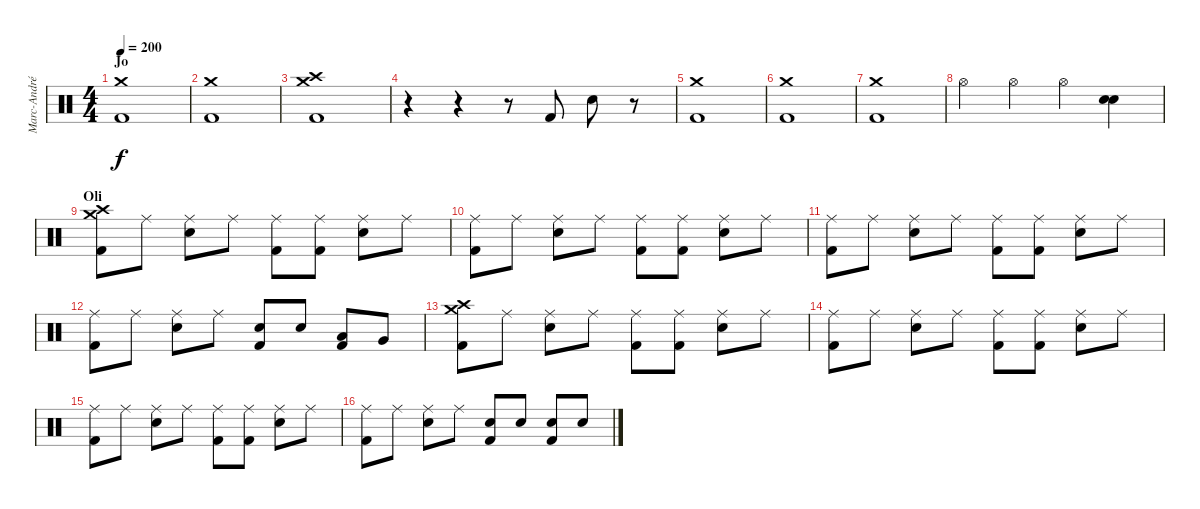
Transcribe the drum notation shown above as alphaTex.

\track ("Marc-André Barabé" "Marc-André") {instrument percussion}
\staff {score}
\articulation defaults
\ts (4 4)
\section ("" "Jo")
\tempo 200
\clef neutral
\ks c
("Crash medium (hit)" "Kick (hit) 2").1{dy f} |
("Crash medium (hit)" "Kick (hit) 2").1 |
("Crash high (hit)" "Crash medium (hit)" "Kick (hit) 2").1 |
r.4 r.4 r.8 "Kick (hit) 2".8 "Electric Snare (hit)".8 r.8 |
("Crash medium (hit)" "Kick (hit) 2").1 |
("Crash medium (hit)" "Kick (hit) 2").1 |
("Crash medium (hit)" "Kick (hit) 2").1 |
"Hi-Hat (open)".4 "Hi-Hat (open)".4 "Hi-Hat (open)".4 ("Electric Snare (hit)" "Electric Snare (hit)").4 |
\section ("" "Oli")
("Crash high (hit)" "Crash medium (hit)" "Kick (hit) 2").8 "Ride (middle)".8 ("Ride (middle)" "Electric Snare (hit)").8 "Ride (middle)".8 ("Ride (middle)" "Kick (hit) 2").8 ("Ride (middle)" "Kick (hit) 2").8 ("Ride (middle)" "Electric Snare (hit)").8 "Ride (middle)".8 |
("Ride (middle)" "Kick (hit) 2").8 "Ride (middle)".8 ("Ride (middle)" "Electric Snare (hit)").8 "Ride (middle)".8 ("Ride (middle)" "Kick (hit) 2").8 ("Ride (middle)" "Kick (hit) 2").8 ("Ride (middle)" "Electric Snare (hit)").8 "Ride (middle)".8 |
("Ride (middle)" "Kick (hit) 2").8 "Ride (middle)".8 ("Ride (middle)" "Electric Snare (hit)").8 "Ride (middle)".8 ("Ride (middle)" "Kick (hit) 2").8 ("Ride (middle)" "Kick (hit) 2").8 ("Ride (middle)" "Electric Snare (hit)").8 "Ride (middle)".8 |
("Ride (middle)" "Kick (hit) 2").8 "Ride (middle)".8 ("Ride (middle)" "Electric Snare (hit)").8 "Ride (middle)".8 ("Electric Snare (hit)"{tr (4 32)} "Kick (hit) 2").8 "Electric Snare (hit)"{tr (4 32)}.8 ("Low Tom (hit)"{tr (4 32)} "Kick (hit) 2").8 "Very Low Tom (hit)"{tr (4 32)}.8 |
("Crash high (hit)" "Crash medium (hit)" "Kick (hit) 2").8 "Ride (middle)".8 ("Ride (middle)" "Electric Snare (hit)").8 "Ride (middle)".8 ("Ride (middle)" "Kick (hit) 2").8 ("Ride (middle)" "Kick (hit) 2").8 ("Ride (middle)" "Electric Snare (hit)").8 "Ride (middle)".8 |
("Ride (middle)" "Kick (hit) 2").8 "Ride (middle)".8 ("Ride (middle)" "Electric Snare (hit)").8 "Ride (middle)".8 ("Ride (middle)" "Kick (hit) 2").8 ("Ride (middle)" "Kick (hit) 2").8 ("Ride (middle)" "Electric Snare (hit)").8 "Ride (middle)".8 |
("Ride (middle)" "Kick (hit) 2").8 "Ride (middle)".8 ("Ride (middle)" "Electric Snare (hit)").8 "Ride (middle)".8 ("Ride (middle)" "Kick (hit) 2").8 ("Ride (middle)" "Kick (hit) 2").8 ("Ride (middle)" "Electric Snare (hit)").8 "Ride (middle)".8 |
("Ride (middle)" "Kick (hit) 2").8 "Ride (middle)".8 ("Ride (middle)" "Electric Snare (hit)").8 "Ride (middle)".8 ("Electric Snare (hit)"{tr (4 32)} "Kick (hit) 2").8 "Electric Snare (hit)"{tr (4 32)}.8 ("Electric Snare (hit)"{tr (4 32)} "Kick (hit) 2").8 "Electric Snare (hit)"{tr (4 32)}.8
